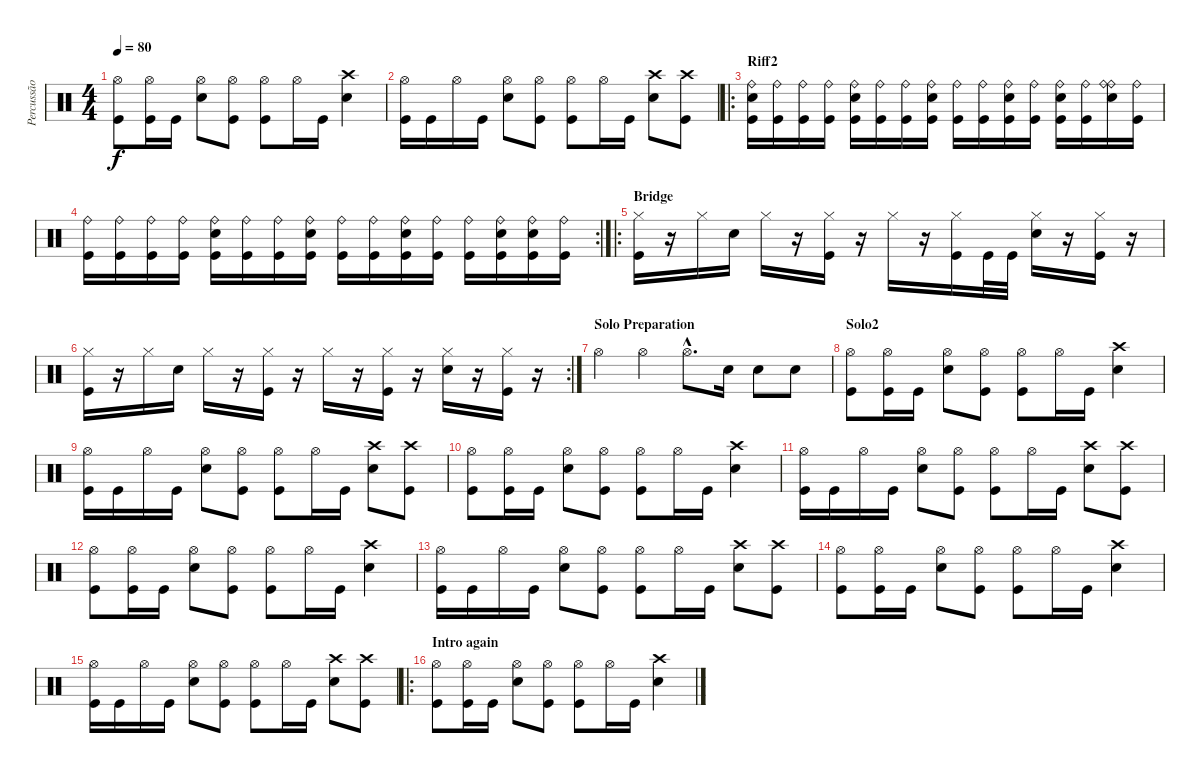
\track ("Percussão" "Percussão") {instrument percussion}
\staff {score}
\articulation defaults
\ts (4 4)
\tempo 80
\clef neutral
\ks c
("Hi-Hat (open)" "Kick (hit)").8{dy f} ("Hi-Hat (open)" "Kick (hit)").16 "Kick (hit)".16 ("Hi-Hat (open)" "Snare (hit) 2").8 ("Hi-Hat (open)" "Kick (hit)").8 ("Hi-Hat (open)" "Kick (hit)").8 "Hi-Hat (open)".16 "Kick (hit)".16 ("Crash high (hit)" "Snare (hit) 2").4 |
("Hi-Hat (open)" "Kick (hit)").16 "Kick (hit)".16 "Hi-Hat (open)".16 "Kick (hit)".16 ("Hi-Hat (open)" "Snare (hit) 2").8 ("Hi-Hat (open)" "Kick (hit)").8 ("Hi-Hat (open)" "Kick (hit)").8 "Hi-Hat (open)".16 "Kick (hit)".16 ("Crash high (hit)" "Snare (hit) 2").8 ("Crash high (hit)" "Kick (hit)").8 |
\ro
\section ("" "Riff2")
("Ride (bell)" "Snare (hit) 2" "Kick (hit)").16 ("Ride (bell)" "Kick (hit)").16 ("Ride (bell)" "Kick (hit)").16 ("Ride (bell)" "Kick (hit)").16 ("Ride (bell)" "Snare (hit) 2" "Kick (hit)").16 ("Ride (bell)" "Kick (hit)").16 ("Ride (bell)" "Kick (hit)").16 ("Ride (bell)" "Snare (hit) 2" "Kick (hit)").16 ("Ride (bell)" "Kick (hit)").16 ("Ride (bell)" "Kick (hit)").16 ("Ride (bell)" "Snare (hit) 2" "Kick (hit)").16 ("Ride (bell)" "Kick (hit)").16 ("Ride (bell)" "Snare (hit) 2" "Kick (hit)").16 ("Ride (bell)" "Kick (hit)").16 ("Ride (bell)" "Snare (hit) 2" "Ride (bell)").16 ("Ride (bell)" "Kick (hit)").16 |
\rc 2
("Ride (bell)" "Kick (hit)").16 ("Ride (bell)" "Kick (hit)").16 ("Ride (bell)" "Kick (hit)").16 ("Ride (bell)" "Kick (hit)").16 ("Ride (bell)" "Snare (hit) 2" "Kick (hit)").16 ("Ride (bell)" "Kick (hit)").16 ("Ride (bell)" "Kick (hit)").16 ("Ride (bell)" "Snare (hit) 2" "Kick (hit)").16 ("Ride (bell)" "Kick (hit)").16 ("Ride (bell)" "Kick (hit)").16 ("Ride (bell)" "Snare (hit) 2" "Kick (hit)").16 ("Ride (bell)" "Kick (hit)").16 ("Ride (bell)" "Kick (hit)").16 ("Ride (bell)" "Snare (hit) 2" "Kick (hit)").16 ("Ride (bell)" "Snare (hit) 2" "Kick (hit)").16 ("Ride (bell)" "Kick (hit)").16 |
\ro
\section ("" "Bridge")
("Hi-Hat (closed)" "Kick (hit)").16 r.16 "Hi-Hat (closed)".16 "Snare (hit) 2".16 "Hi-Hat (closed)".16 r.16 ("Hi-Hat (closed)" "Kick (hit)").16 r.16 "Hi-Hat (closed)".16 r.16 ("Hi-Hat (closed)" "Kick (hit)").16 "Kick (hit)".32 "Kick (hit)".32 ("Hi-Hat (closed)" "Snare (hit) 2").16 r.16 ("Hi-Hat (closed)" "Kick (hit)").16 r.16 |
\rc 2
("Hi-Hat (closed)" "Kick (hit)").16 r.16 "Hi-Hat (closed)".16 "Snare (hit) 2".16 "Hi-Hat (closed)".16 r.16 ("Hi-Hat (closed)" "Kick (hit)").16 r.16 "Hi-Hat (closed)".16 r.16 ("Hi-Hat (closed)" "Kick (hit)").16 r.16 ("Hi-Hat (closed)" "Snare (hit) 2").16 r.16 ("Hi-Hat (closed)" "Kick (hit)").16 r.16 |
\section ("" "Solo Preparation")
"Hi-Hat (open)".4 "Hi-Hat (open)".4 "Hi-Hat (open)"{hac}.8{d} "Snare (hit) 2".16 "Snare (hit) 2".8 "Snare (hit) 2".8 |
\section ("" "Solo2")
("Hi-Hat (open)" "Kick (hit)").8 ("Hi-Hat (open)" "Kick (hit)").16 "Kick (hit)".16 ("Hi-Hat (open)" "Snare (hit) 2").8 ("Hi-Hat (open)" "Kick (hit)").8 ("Hi-Hat (open)" "Kick (hit)").8 "Hi-Hat (open)".16 "Kick (hit)".16 ("Crash high (hit)" "Snare (hit) 2").4 |
("Hi-Hat (open)" "Kick (hit)").16 "Kick (hit)".16 "Hi-Hat (open)".16 "Kick (hit)".16 ("Hi-Hat (open)" "Snare (hit) 2").8 ("Hi-Hat (open)" "Kick (hit)").8 ("Hi-Hat (open)" "Kick (hit)").8 "Hi-Hat (open)".16 "Kick (hit)".16 ("Crash high (hit)" "Snare (hit) 2").8 ("Crash high (hit)" "Kick (hit)").8 |
("Hi-Hat (open)" "Kick (hit)").8 ("Hi-Hat (open)" "Kick (hit)").16 "Kick (hit)".16 ("Hi-Hat (open)" "Snare (hit) 2").8 ("Hi-Hat (open)" "Kick (hit)").8 ("Hi-Hat (open)" "Kick (hit)").8 "Hi-Hat (open)".16 "Kick (hit)".16 ("Crash high (hit)" "Snare (hit) 2").4 |
("Hi-Hat (open)" "Kick (hit)").16 "Kick (hit)".16 "Hi-Hat (open)".16 "Kick (hit)".16 ("Hi-Hat (open)" "Snare (hit) 2").8 ("Hi-Hat (open)" "Kick (hit)").8 ("Hi-Hat (open)" "Kick (hit)").8 "Hi-Hat (open)".16 "Kick (hit)".16 ("Crash high (hit)" "Snare (hit) 2").8 ("Crash high (hit)" "Kick (hit)").8 |
("Hi-Hat (open)" "Kick (hit)").8 ("Hi-Hat (open)" "Kick (hit)").16 "Kick (hit)".16 ("Hi-Hat (open)" "Snare (hit) 2").8 ("Hi-Hat (open)" "Kick (hit)").8 ("Hi-Hat (open)" "Kick (hit)").8 "Hi-Hat (open)".16 "Kick (hit)".16 ("Crash high (hit)" "Snare (hit) 2").4 |
("Hi-Hat (open)" "Kick (hit)").16 "Kick (hit)".16 "Hi-Hat (open)".16 "Kick (hit)".16 ("Hi-Hat (open)" "Snare (hit) 2").8 ("Hi-Hat (open)" "Kick (hit)").8 ("Hi-Hat (open)" "Kick (hit)").8 "Hi-Hat (open)".16 "Kick (hit)".16 ("Crash high (hit)" "Snare (hit) 2").8 ("Crash high (hit)" "Kick (hit)").8 |
("Hi-Hat (open)" "Kick (hit)").8 ("Hi-Hat (open)" "Kick (hit)").16 "Kick (hit)".16 ("Hi-Hat (open)" "Snare (hit) 2").8 ("Hi-Hat (open)" "Kick (hit)").8 ("Hi-Hat (open)" "Kick (hit)").8 "Hi-Hat (open)".16 "Kick (hit)".16 ("Crash high (hit)" "Snare (hit) 2").4 |
("Hi-Hat (open)" "Kick (hit)").16 "Kick (hit)".16 "Hi-Hat (open)".16 "Kick (hit)".16 ("Hi-Hat (open)" "Snare (hit) 2").8 ("Hi-Hat (open)" "Kick (hit)").8 ("Hi-Hat (open)" "Kick (hit)").8 "Hi-Hat (open)".16 "Kick (hit)".16 ("Crash high (hit)" "Snare (hit) 2").8 ("Crash high (hit)" "Kick (hit)").8 |
\ro
\section ("" "Intro again")
("Hi-Hat (open)" "Kick (hit)").8 ("Hi-Hat (open)" "Kick (hit)").16 "Kick (hit)".16 ("Hi-Hat (open)" "Snare (hit) 2").8 ("Hi-Hat (open)" "Kick (hit)").8 ("Hi-Hat (open)" "Kick (hit)").8 "Hi-Hat (open)".16 "Kick (hit)".16 ("Crash high (hit)" "Snare (hit) 2").4
